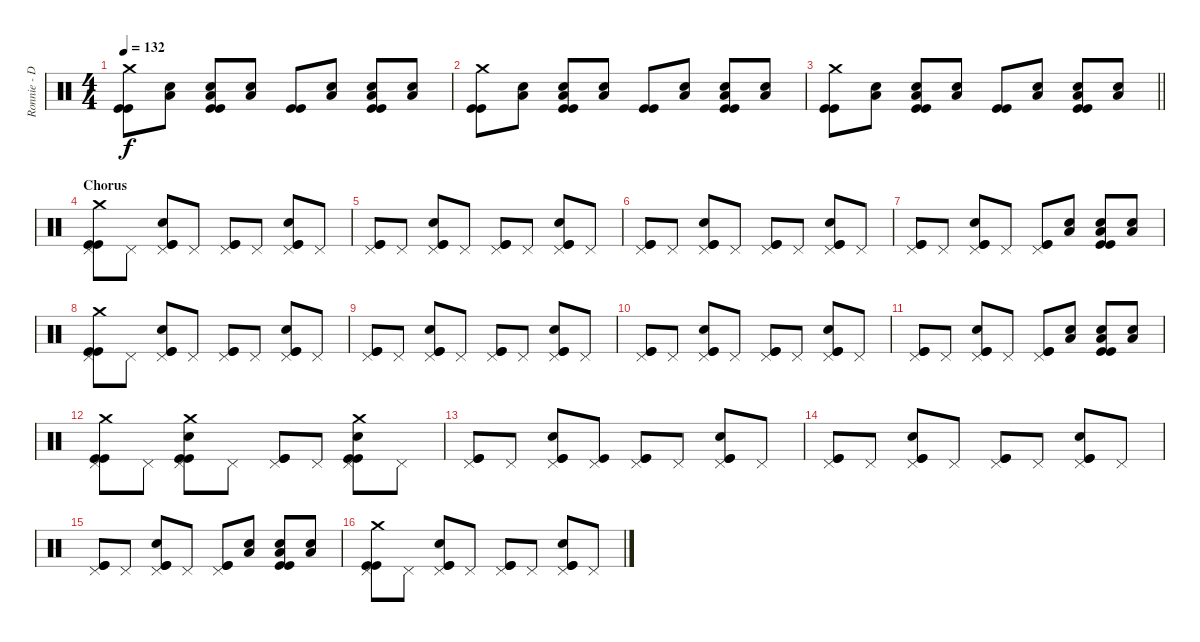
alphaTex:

\track ("Ronnie - Drums" "Ronnie - D") {instrument percussion}
\staff {score}
\articulation defaults
\ts (4 4)
\tempo 132
\clef neutral
\ks c
("Crash medium (hit)" "Kick (hit)" "Kick (hit)").8{dy f} ("Electric Snare (hit)" "Low Floor Tom (hit)").8 ("Electric Snare (hit)" "Low Floor Tom (hit)" "Kick (hit)" "Kick (hit)").8 ("Electric Snare (hit)" "Low Floor Tom (hit)").8 ("Kick (hit)" "Kick (hit)").8 ("Electric Snare (hit)" "Low Floor Tom (hit)").8 ("Electric Snare (hit)" "Low Floor Tom (hit)" "Kick (hit)" "Kick (hit)").8 ("Electric Snare (hit)" "Low Floor Tom (hit)").8 |
("Crash medium (hit)" "Kick (hit)" "Kick (hit)").8 ("Electric Snare (hit)" "Low Floor Tom (hit)").8 ("Electric Snare (hit)" "Low Floor Tom (hit)" "Kick (hit)" "Kick (hit)").8 ("Electric Snare (hit)" "Low Floor Tom (hit)").8 ("Kick (hit)" "Kick (hit)").8 ("Electric Snare (hit)" "Low Floor Tom (hit)").8 ("Electric Snare (hit)" "Low Floor Tom (hit)" "Kick (hit)" "Kick (hit)").8 ("Electric Snare (hit)" "Low Floor Tom (hit)").8 |
\barLineRight lightlight
("Crash medium (hit)" "Kick (hit)" "Kick (hit)").8 ("Electric Snare (hit)" "Low Floor Tom (hit)").8 ("Electric Snare (hit)" "Low Floor Tom (hit)" "Kick (hit)" "Kick (hit)").8 ("Electric Snare (hit)" "Low Floor Tom (hit)").8 ("Kick (hit)" "Kick (hit)").8 ("Electric Snare (hit)" "Low Floor Tom (hit)").8 ("Electric Snare (hit)" "Low Floor Tom (hit)" "Kick (hit)" "Kick (hit)").8 ("Electric Snare (hit)" "Low Floor Tom (hit)").8 |
\section ("" "Chorus")
("Pedal Hi-Hat (hit)" "Crash medium (hit)" "Kick (hit)" "Kick (hit)").8 "Pedal Hi-Hat (hit)".8 ("Pedal Hi-Hat (hit)" "Electric Snare (hit)" "Kick (hit)" "Kick (hit)").8 "Pedal Hi-Hat (hit)".8 ("Pedal Hi-Hat (hit)" "Kick (hit)" "Kick (hit)").8 "Pedal Hi-Hat (hit)".8 ("Pedal Hi-Hat (hit)" "Electric Snare (hit)" "Kick (hit)" "Kick (hit)").8 "Pedal Hi-Hat (hit)".8 |
("Pedal Hi-Hat (hit)" "Kick (hit)" "Kick (hit)").8 "Pedal Hi-Hat (hit)".8 ("Pedal Hi-Hat (hit)" "Electric Snare (hit)" "Kick (hit)" "Kick (hit)").8 "Pedal Hi-Hat (hit)".8 ("Pedal Hi-Hat (hit)" "Kick (hit)" "Kick (hit)").8 "Pedal Hi-Hat (hit)".8 ("Pedal Hi-Hat (hit)" "Electric Snare (hit)" "Kick (hit)" "Kick (hit)").8 "Pedal Hi-Hat (hit)".8 |
("Pedal Hi-Hat (hit)" "Kick (hit)" "Kick (hit)").8 "Pedal Hi-Hat (hit)".8 ("Pedal Hi-Hat (hit)" "Electric Snare (hit)" "Kick (hit)" "Kick (hit)").8 "Pedal Hi-Hat (hit)".8 ("Pedal Hi-Hat (hit)" "Kick (hit)" "Kick (hit)").8 "Pedal Hi-Hat (hit)".8 ("Pedal Hi-Hat (hit)" "Electric Snare (hit)" "Kick (hit)" "Kick (hit)").8 "Pedal Hi-Hat (hit)".8 |
("Pedal Hi-Hat (hit)" "Kick (hit)" "Kick (hit)").8 "Pedal Hi-Hat (hit)".8 ("Pedal Hi-Hat (hit)" "Electric Snare (hit)" "Kick (hit)" "Kick (hit)").8 "Pedal Hi-Hat (hit)".8 ("Pedal Hi-Hat (hit)" "Kick (hit)" "Kick (hit)").8 ("Low Floor Tom (hit)" "Electric Snare (hit)").8 ("Low Floor Tom (hit)" "Electric Snare (hit)" "Kick (hit)" "Kick (hit)").8 ("Low Floor Tom (hit)" "Electric Snare (hit)").8 |
("Pedal Hi-Hat (hit)" "Crash medium (hit)" "Kick (hit)" "Kick (hit)").8 "Pedal Hi-Hat (hit)".8 ("Pedal Hi-Hat (hit)" "Electric Snare (hit)" "Kick (hit)" "Kick (hit)").8 "Pedal Hi-Hat (hit)".8 ("Pedal Hi-Hat (hit)" "Kick (hit)" "Kick (hit)").8 "Pedal Hi-Hat (hit)".8 ("Pedal Hi-Hat (hit)" "Electric Snare (hit)" "Kick (hit)" "Kick (hit)").8 "Pedal Hi-Hat (hit)".8 |
("Pedal Hi-Hat (hit)" "Kick (hit)" "Kick (hit)").8 "Pedal Hi-Hat (hit)".8 ("Pedal Hi-Hat (hit)" "Electric Snare (hit)" "Kick (hit)" "Kick (hit)").8 "Pedal Hi-Hat (hit)".8 ("Pedal Hi-Hat (hit)" "Kick (hit)" "Kick (hit)").8 "Pedal Hi-Hat (hit)".8 ("Pedal Hi-Hat (hit)" "Electric Snare (hit)" "Kick (hit)" "Kick (hit)").8 "Pedal Hi-Hat (hit)".8 |
("Pedal Hi-Hat (hit)" "Kick (hit)" "Kick (hit)").8 "Pedal Hi-Hat (hit)".8 ("Pedal Hi-Hat (hit)" "Electric Snare (hit)" "Kick (hit)" "Kick (hit)").8 "Pedal Hi-Hat (hit)".8 ("Pedal Hi-Hat (hit)" "Kick (hit)" "Kick (hit)").8 "Pedal Hi-Hat (hit)".8 ("Pedal Hi-Hat (hit)" "Electric Snare (hit)" "Kick (hit)" "Kick (hit)").8 "Pedal Hi-Hat (hit)".8 |
("Pedal Hi-Hat (hit)" "Kick (hit)" "Kick (hit)").8 "Pedal Hi-Hat (hit)".8 ("Pedal Hi-Hat (hit)" "Electric Snare (hit)" "Kick (hit)" "Kick (hit)").8 "Pedal Hi-Hat (hit)".8 ("Pedal Hi-Hat (hit)" "Kick (hit)" "Kick (hit)").8 ("Low Floor Tom (hit)" "Electric Snare (hit)").8 ("Low Floor Tom (hit)" "Electric Snare (hit)" "Kick (hit)" "Kick (hit)").8 ("Low Floor Tom (hit)" "Electric Snare (hit)").8 |
("Pedal Hi-Hat (hit)" "Crash medium (hit)" "Kick (hit)" "Kick (hit)").8 "Pedal Hi-Hat (hit)".8 ("Pedal Hi-Hat (hit)" "Crash medium (hit)" "Electric Snare (hit)" "Kick (hit)" "Kick (hit)").8 "Pedal Hi-Hat (hit)".8 ("Pedal Hi-Hat (hit)" "Kick (hit)" "Kick (hit)").8 "Pedal Hi-Hat (hit)".8 ("Pedal Hi-Hat (hit)" "Crash medium (hit)" "Electric Snare (hit)" "Kick (hit)" "Kick (hit)").8 "Pedal Hi-Hat (hit)".8 |
("Pedal Hi-Hat (hit)" "Kick (hit)" "Kick (hit)").8 "Pedal Hi-Hat (hit)".8 ("Pedal Hi-Hat (hit)" "Electric Snare (hit)" "Kick (hit)" "Kick (hit)").8 ("Pedal Hi-Hat (hit)" "Kick (hit)").8 ("Pedal Hi-Hat (hit)" "Kick (hit)" "Kick (hit)").8 "Pedal Hi-Hat (hit)".8 ("Pedal Hi-Hat (hit)" "Electric Snare (hit)" "Kick (hit)" "Kick (hit)").8 "Pedal Hi-Hat (hit)".8 |
("Pedal Hi-Hat (hit)" "Kick (hit)" "Kick (hit)").8 "Pedal Hi-Hat (hit)".8 ("Pedal Hi-Hat (hit)" "Electric Snare (hit)" "Kick (hit)" "Kick (hit)").8 "Pedal Hi-Hat (hit)".8 ("Pedal Hi-Hat (hit)" "Kick (hit)" "Kick (hit)").8 "Pedal Hi-Hat (hit)".8 ("Pedal Hi-Hat (hit)" "Electric Snare (hit)" "Kick (hit)" "Kick (hit)").8 "Pedal Hi-Hat (hit)".8 |
("Pedal Hi-Hat (hit)" "Kick (hit)" "Kick (hit)").8 "Pedal Hi-Hat (hit)".8 ("Pedal Hi-Hat (hit)" "Electric Snare (hit)" "Kick (hit)" "Kick (hit)").8 "Pedal Hi-Hat (hit)".8 ("Pedal Hi-Hat (hit)" "Kick (hit)" "Kick (hit)").8 ("Low Floor Tom (hit)" "Electric Snare (hit)").8 ("Low Floor Tom (hit)" "Electric Snare (hit)" "Kick (hit)" "Kick (hit)").8 ("Low Floor Tom (hit)" "Electric Snare (hit)").8 |
("Pedal Hi-Hat (hit)" "Crash medium (hit)" "Kick (hit)" "Kick (hit)").8 "Pedal Hi-Hat (hit)".8 ("Pedal Hi-Hat (hit)" "Electric Snare (hit)" "Kick (hit)" "Kick (hit)").8 "Pedal Hi-Hat (hit)".8 ("Pedal Hi-Hat (hit)" "Kick (hit)" "Kick (hit)").8 "Pedal Hi-Hat (hit)".8 ("Pedal Hi-Hat (hit)" "Electric Snare (hit)" "Kick (hit)" "Kick (hit)").8 "Pedal Hi-Hat (hit)".8
